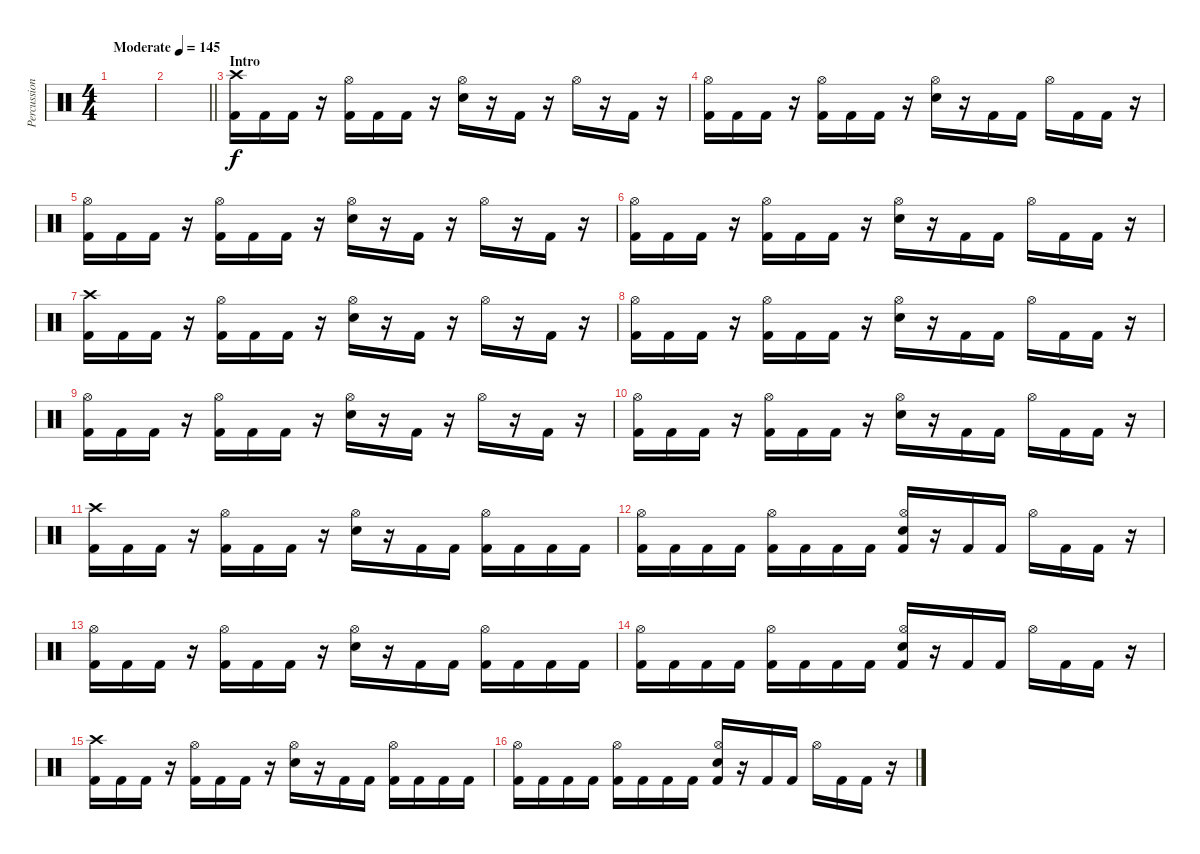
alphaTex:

\track ("Percussion" "Percussion") {instrument percussion}
\staff {score}
\articulation defaults
\ts (4 4)
\tempo (145 "Moderate")
\clef neutral
\ks c
|
\barLineRight lightlight
|
\section ("" "Intro")
\ks aminor
("Crash high (hit)" "Kick (hit) 2").16 "Kick (hit) 2".16 "Kick (hit) 2".16 r.16 ("Hi-Hat (open)" "Kick (hit) 2").16 "Kick (hit) 2".16 "Kick (hit) 2".16 r.16 ("Hi-Hat (open)" "Electric Snare (hit)").16 r.16 "Kick (hit) 2".16 r.16 "Hi-Hat (open)".16 r.16 "Kick (hit) 2".16 r.16 |
("Hi-Hat (open)" "Kick (hit) 2").16 "Kick (hit) 2".16 "Kick (hit) 2".16 r.16 ("Hi-Hat (open)" "Kick (hit) 2").16 "Kick (hit) 2".16 "Kick (hit) 2".16 r.16 ("Hi-Hat (open)" "Electric Snare (hit)").16 r.16 "Kick (hit) 2".16 "Kick (hit) 2".16 "Hi-Hat (open)".16 "Kick (hit) 2".16 "Kick (hit) 2".16 r.16 |
("Hi-Hat (open)" "Kick (hit) 2").16 "Kick (hit) 2".16 "Kick (hit) 2".16 r.16 ("Hi-Hat (open)" "Kick (hit) 2").16 "Kick (hit) 2".16 "Kick (hit) 2".16 r.16 ("Hi-Hat (open)" "Electric Snare (hit)").16 r.16 "Kick (hit) 2".16 r.16 "Hi-Hat (open)".16 r.16 "Kick (hit) 2".16 r.16 |
("Hi-Hat (open)" "Kick (hit) 2").16 "Kick (hit) 2".16 "Kick (hit) 2".16 r.16 ("Hi-Hat (open)" "Kick (hit) 2").16 "Kick (hit) 2".16 "Kick (hit) 2".16 r.16 ("Hi-Hat (open)" "Electric Snare (hit)").16 r.16 "Kick (hit) 2".16 "Kick (hit) 2".16 "Hi-Hat (open)".16 "Kick (hit) 2".16 "Kick (hit) 2".16 r.16 |
("Crash high (hit)" "Kick (hit) 2").16 "Kick (hit) 2".16 "Kick (hit) 2".16 r.16 ("Hi-Hat (open)" "Kick (hit) 2").16 "Kick (hit) 2".16 "Kick (hit) 2".16 r.16 ("Hi-Hat (open)" "Electric Snare (hit)").16 r.16 "Kick (hit) 2".16 r.16 "Hi-Hat (open)".16 r.16 "Kick (hit) 2".16 r.16 |
("Hi-Hat (open)" "Kick (hit) 2").16 "Kick (hit) 2".16 "Kick (hit) 2".16 r.16 ("Hi-Hat (open)" "Kick (hit) 2").16 "Kick (hit) 2".16 "Kick (hit) 2".16 r.16 ("Hi-Hat (open)" "Electric Snare (hit)").16 r.16 "Kick (hit) 2".16 "Kick (hit) 2".16 "Hi-Hat (open)".16 "Kick (hit) 2".16 "Kick (hit) 2".16 r.16 |
("Hi-Hat (open)" "Kick (hit) 2").16 "Kick (hit) 2".16 "Kick (hit) 2".16 r.16 ("Hi-Hat (open)" "Kick (hit) 2").16 "Kick (hit) 2".16 "Kick (hit) 2".16 r.16 ("Hi-Hat (open)" "Electric Snare (hit)").16 r.16 "Kick (hit) 2".16 r.16 "Hi-Hat (open)".16 r.16 "Kick (hit) 2".16 r.16 |
("Hi-Hat (open)" "Kick (hit) 2").16 "Kick (hit) 2".16 "Kick (hit) 2".16 r.16 ("Hi-Hat (open)" "Kick (hit) 2").16 "Kick (hit) 2".16 "Kick (hit) 2".16 r.16 ("Hi-Hat (open)" "Electric Snare (hit)").16 r.16 "Kick (hit) 2".16 "Kick (hit) 2".16 "Hi-Hat (open)".16 "Kick (hit) 2".16 "Kick (hit) 2".16 r.16 |
("Crash high (hit)" "Kick (hit) 2").16 "Kick (hit) 2".16 "Kick (hit) 2".16 r.16 ("Hi-Hat (open)" "Kick (hit) 2").16 "Kick (hit) 2".16 "Kick (hit) 2".16 r.16 ("Hi-Hat (open)" "Electric Snare (hit)").16 r.16 "Kick (hit) 2".16 "Kick (hit) 2".16 ("Hi-Hat (open)" "Kick (hit) 2").16 "Kick (hit) 2".16 "Kick (hit) 2".16 "Kick (hit) 2".16 |
("Hi-Hat (open)" "Kick (hit) 2").16 "Kick (hit) 2".16 "Kick (hit) 2".16 "Kick (hit) 2".16 ("Hi-Hat (open)" "Kick (hit) 2").16 "Kick (hit) 2".16 "Kick (hit) 2".16 "Kick (hit) 2".16 ("Hi-Hat (open)" "Electric Snare (hit)" "Kick (hit) 2").16 r.16 "Kick (hit) 2".16 "Kick (hit) 2".16 "Hi-Hat (open)".16 "Kick (hit) 2".16 "Kick (hit) 2".16 r.16 |
("Hi-Hat (open)" "Kick (hit) 2").16 "Kick (hit) 2".16 "Kick (hit) 2".16 r.16 ("Hi-Hat (open)" "Kick (hit) 2").16 "Kick (hit) 2".16 "Kick (hit) 2".16 r.16 ("Hi-Hat (open)" "Electric Snare (hit)").16 r.16 "Kick (hit) 2".16 "Kick (hit) 2".16 ("Hi-Hat (open)" "Kick (hit) 2").16 "Kick (hit) 2".16 "Kick (hit) 2".16 "Kick (hit) 2".16 |
("Hi-Hat (open)" "Kick (hit) 2").16 "Kick (hit) 2".16 "Kick (hit) 2".16 "Kick (hit) 2".16 ("Hi-Hat (open)" "Kick (hit) 2").16 "Kick (hit) 2".16 "Kick (hit) 2".16 "Kick (hit) 2".16 ("Hi-Hat (open)" "Electric Snare (hit)" "Kick (hit) 2").16 r.16 "Kick (hit) 2".16 "Kick (hit) 2".16 "Hi-Hat (open)".16 "Kick (hit) 2".16 "Kick (hit) 2".16 r.16 |
("Crash high (hit)" "Kick (hit) 2").16 "Kick (hit) 2".16 "Kick (hit) 2".16 r.16 ("Hi-Hat (open)" "Kick (hit) 2").16 "Kick (hit) 2".16 "Kick (hit) 2".16 r.16 ("Hi-Hat (open)" "Electric Snare (hit)").16 r.16 "Kick (hit) 2".16 "Kick (hit) 2".16 ("Hi-Hat (open)" "Kick (hit) 2").16 "Kick (hit) 2".16 "Kick (hit) 2".16 "Kick (hit) 2".16 |
("Hi-Hat (open)" "Kick (hit) 2").16 "Kick (hit) 2".16 "Kick (hit) 2".16 "Kick (hit) 2".16 ("Hi-Hat (open)" "Kick (hit) 2").16 "Kick (hit) 2".16 "Kick (hit) 2".16 "Kick (hit) 2".16 ("Hi-Hat (open)" "Electric Snare (hit)" "Kick (hit) 2").16 r.16 "Kick (hit) 2".16 "Kick (hit) 2".16 "Hi-Hat (open)".16 "Kick (hit) 2".16 "Kick (hit) 2".16 r.16
